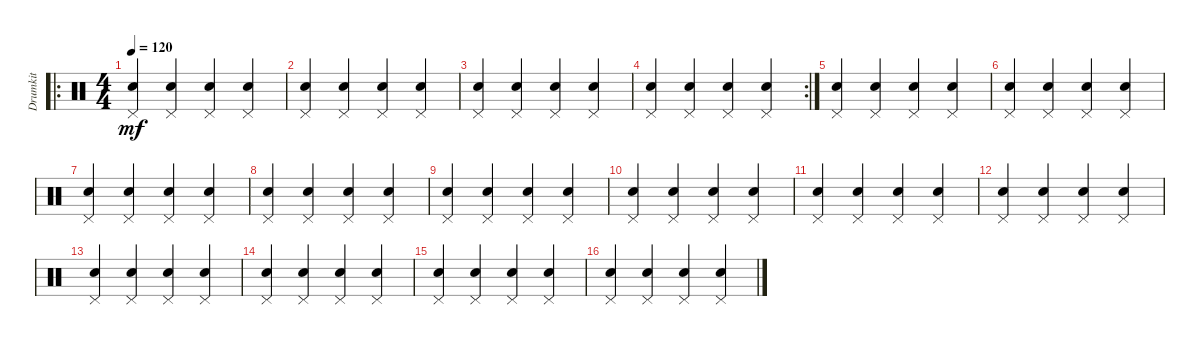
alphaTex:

\track ("Drumkit" "Drumkit") {instrument percussion}
\staff {score}
\articulation defaults
\ro
\ts (4 4)
\tempo 120
\clef neutral
\ks c
("Snare (hit) 2" "Pedal Hi-Hat (hit)").4{dy mf} ("Snare (hit) 2" "Pedal Hi-Hat (hit)").4 ("Snare (hit) 2" "Pedal Hi-Hat (hit)").4 ("Snare (hit) 2" "Pedal Hi-Hat (hit)").4 |
("Snare (hit) 2" "Pedal Hi-Hat (hit)").4 ("Snare (hit) 2" "Pedal Hi-Hat (hit)").4 ("Snare (hit) 2" "Pedal Hi-Hat (hit)").4 ("Snare (hit) 2" "Pedal Hi-Hat (hit)").4 |
("Snare (hit) 2" "Pedal Hi-Hat (hit)").4 ("Snare (hit) 2" "Pedal Hi-Hat (hit)").4 ("Snare (hit) 2" "Pedal Hi-Hat (hit)").4 ("Snare (hit) 2" "Pedal Hi-Hat (hit)").4 |
\rc 2
("Snare (hit) 2" "Pedal Hi-Hat (hit)").4 ("Snare (hit) 2" "Pedal Hi-Hat (hit)").4 ("Snare (hit) 2" "Pedal Hi-Hat (hit)").4 ("Snare (hit) 2" "Pedal Hi-Hat (hit)").4 |
("Snare (hit) 2" "Pedal Hi-Hat (hit)").4 ("Snare (hit) 2" "Pedal Hi-Hat (hit)").4 ("Snare (hit) 2" "Pedal Hi-Hat (hit)").4 ("Snare (hit) 2" "Pedal Hi-Hat (hit)").4 |
("Snare (hit) 2" "Pedal Hi-Hat (hit)").4 ("Snare (hit) 2" "Pedal Hi-Hat (hit)").4 ("Snare (hit) 2" "Pedal Hi-Hat (hit)").4 ("Snare (hit) 2" "Pedal Hi-Hat (hit)").4 |
("Snare (hit) 2" "Pedal Hi-Hat (hit)").4 ("Snare (hit) 2" "Pedal Hi-Hat (hit)").4 ("Snare (hit) 2" "Pedal Hi-Hat (hit)").4 ("Snare (hit) 2" "Pedal Hi-Hat (hit)").4 |
("Snare (hit) 2" "Pedal Hi-Hat (hit)").4 ("Snare (hit) 2" "Pedal Hi-Hat (hit)").4 ("Snare (hit) 2" "Pedal Hi-Hat (hit)").4 ("Snare (hit) 2" "Pedal Hi-Hat (hit)").4 |
("Snare (hit) 2" "Pedal Hi-Hat (hit)").4 ("Snare (hit) 2" "Pedal Hi-Hat (hit)").4 ("Snare (hit) 2" "Pedal Hi-Hat (hit)").4 ("Snare (hit) 2" "Pedal Hi-Hat (hit)").4 |
("Snare (hit) 2" "Pedal Hi-Hat (hit)").4 ("Snare (hit) 2" "Pedal Hi-Hat (hit)").4 ("Snare (hit) 2" "Pedal Hi-Hat (hit)").4 ("Snare (hit) 2" "Pedal Hi-Hat (hit)").4 |
("Snare (hit) 2" "Pedal Hi-Hat (hit)").4 ("Snare (hit) 2" "Pedal Hi-Hat (hit)").4 ("Snare (hit) 2" "Pedal Hi-Hat (hit)").4 ("Snare (hit) 2" "Pedal Hi-Hat (hit)").4 |
("Snare (hit) 2" "Pedal Hi-Hat (hit)").4 ("Snare (hit) 2" "Pedal Hi-Hat (hit)").4 ("Snare (hit) 2" "Pedal Hi-Hat (hit)").4 ("Snare (hit) 2" "Pedal Hi-Hat (hit)").4 |
("Snare (hit) 2" "Pedal Hi-Hat (hit)").4 ("Snare (hit) 2" "Pedal Hi-Hat (hit)").4 ("Snare (hit) 2" "Pedal Hi-Hat (hit)").4 ("Snare (hit) 2" "Pedal Hi-Hat (hit)").4 |
("Snare (hit) 2" "Pedal Hi-Hat (hit)").4 ("Snare (hit) 2" "Pedal Hi-Hat (hit)").4 ("Snare (hit) 2" "Pedal Hi-Hat (hit)").4 ("Snare (hit) 2" "Pedal Hi-Hat (hit)").4 |
("Snare (hit) 2" "Pedal Hi-Hat (hit)").4 ("Snare (hit) 2" "Pedal Hi-Hat (hit)").4 ("Snare (hit) 2" "Pedal Hi-Hat (hit)").4 ("Snare (hit) 2" "Pedal Hi-Hat (hit)").4 |
("Snare (hit) 2" "Pedal Hi-Hat (hit)").4 ("Snare (hit) 2" "Pedal Hi-Hat (hit)").4 ("Snare (hit) 2" "Pedal Hi-Hat (hit)").4 ("Snare (hit) 2" "Pedal Hi-Hat (hit)").4
